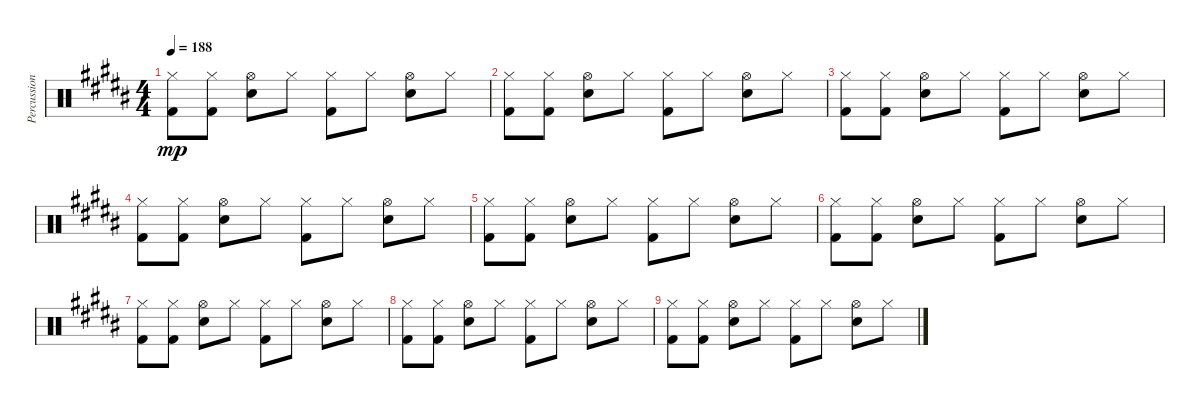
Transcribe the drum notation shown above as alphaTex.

\track ("Percussions" "Percussion") {instrument percussion}
\staff {score}
\articulation defaults
\ts (4 4)
\tempo 188
\clef neutral
\ks b
("Hi-Hat (closed)" "Kick (hit) 2").8{dy mp} ("Hi-Hat (closed)" "Kick (hit) 2").8 ("Hi-Hat (open)" "Snare (hit) 2").8 "Hi-Hat (closed)".8 ("Hi-Hat (closed)" "Kick (hit) 2").8 "Hi-Hat (closed)".8 ("Hi-Hat (open)" "Snare (hit) 2").8 "Hi-Hat (closed)".8 |
("Hi-Hat (closed)" "Kick (hit) 2").8{volume 4} ("Hi-Hat (closed)" "Kick (hit) 2").8 ("Hi-Hat (open)" "Snare (hit) 2").8 "Hi-Hat (closed)".8 ("Hi-Hat (closed)" "Kick (hit) 2").8 "Hi-Hat (closed)".8 ("Hi-Hat (open)" "Snare (hit) 2").8 "Hi-Hat (closed)".8 |
("Hi-Hat (closed)" "Kick (hit) 2").8 ("Hi-Hat (closed)" "Kick (hit) 2").8 ("Hi-Hat (open)" "Snare (hit) 2").8 "Hi-Hat (closed)".8 ("Hi-Hat (closed)" "Kick (hit) 2").8 "Hi-Hat (closed)".8 ("Hi-Hat (open)" "Snare (hit) 2").8 "Hi-Hat (closed)".8 |
("Hi-Hat (closed)" "Kick (hit) 2").8 ("Hi-Hat (closed)" "Kick (hit) 2").8 ("Hi-Hat (open)" "Snare (hit) 2").8 "Hi-Hat (closed)".8 ("Hi-Hat (closed)" "Kick (hit) 2").8 "Hi-Hat (closed)".8 ("Hi-Hat (open)" "Snare (hit) 2").8 "Hi-Hat (closed)".8 |
("Hi-Hat (closed)" "Kick (hit) 2").8 ("Hi-Hat (closed)" "Kick (hit) 2").8 ("Hi-Hat (open)" "Snare (hit) 2").8 "Hi-Hat (closed)".8 ("Hi-Hat (closed)" "Kick (hit) 2").8 "Hi-Hat (closed)".8 ("Hi-Hat (open)" "Snare (hit) 2").8 "Hi-Hat (closed)".8 |
("Hi-Hat (closed)" "Kick (hit) 2").8{volume 0} ("Hi-Hat (closed)" "Kick (hit) 2").8 ("Hi-Hat (open)" "Snare (hit) 2").8 "Hi-Hat (closed)".8 ("Hi-Hat (closed)" "Kick (hit) 2").8 "Hi-Hat (closed)".8 ("Hi-Hat (open)" "Snare (hit) 2").8 "Hi-Hat (closed)".8 |
("Hi-Hat (closed)" "Kick (hit) 2").8 ("Hi-Hat (closed)" "Kick (hit) 2").8 ("Hi-Hat (open)" "Snare (hit) 2").8 "Hi-Hat (closed)".8 ("Hi-Hat (closed)" "Kick (hit) 2").8 "Hi-Hat (closed)".8 ("Hi-Hat (open)" "Snare (hit) 2").8 "Hi-Hat (closed)".8 |
("Hi-Hat (closed)" "Kick (hit) 2").8 ("Hi-Hat (closed)" "Kick (hit) 2").8 ("Hi-Hat (open)" "Snare (hit) 2").8 "Hi-Hat (closed)".8 ("Hi-Hat (closed)" "Kick (hit) 2").8 "Hi-Hat (closed)".8 ("Hi-Hat (open)" "Snare (hit) 2").8 "Hi-Hat (closed)".8 |
("Hi-Hat (closed)" "Kick (hit) 2").8 ("Hi-Hat (closed)" "Kick (hit) 2").8 ("Hi-Hat (open)" "Snare (hit) 2").8 "Hi-Hat (closed)".8 ("Hi-Hat (closed)" "Kick (hit) 2").8 "Hi-Hat (closed)".8 ("Hi-Hat (open)" "Snare (hit) 2").8 "Hi-Hat (closed)".8
